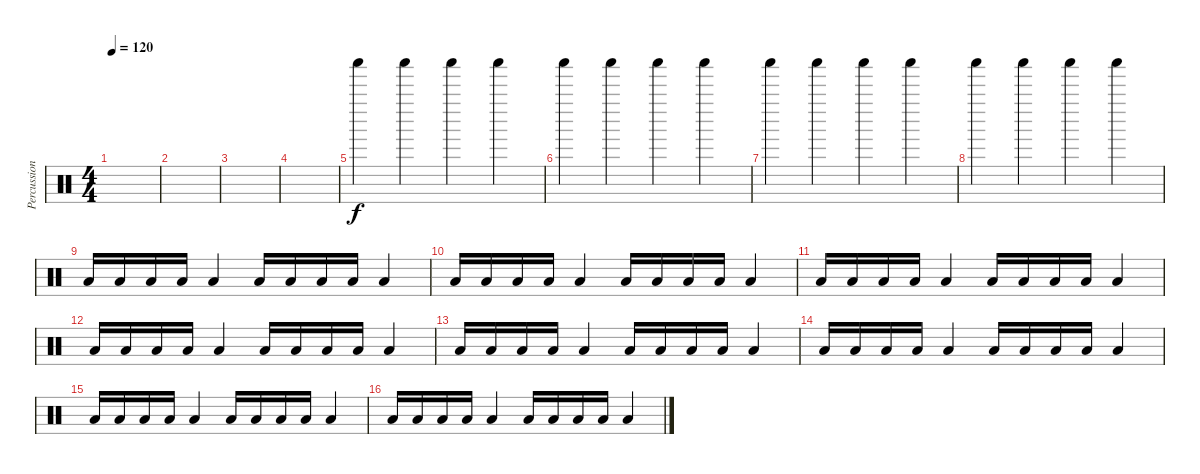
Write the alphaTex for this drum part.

\track ("Percussion" "Percussion") {instrument percussion}
\staff {score}
\articulation defaults
\ts (4 4)
\tempo 120
\clef neutral
\ks c
|
|
|
|
"Shaker (hit)".4 "Shaker (hit)".4 "Shaker (hit)".4 "Shaker (hit)".4 |
"Shaker (hit)".4 "Shaker (hit)".4 "Shaker (hit)".4 "Shaker (hit)".4 |
"Shaker (hit)".4 "Shaker (hit)".4 "Shaker (hit)".4 "Shaker (hit)".4 |
"Shaker (hit)".4 "Shaker (hit)".4 "Shaker (hit)".4 "Shaker (hit)".4 |
"Low Tom (hit)".16 "Low Tom (hit)".16 "Low Tom (hit)".16 "Low Tom (hit)".16 "Low Tom (hit)".4 "Low Tom (hit)".16 "Low Tom (hit)".16 "Low Tom (hit)".16 "Low Tom (hit)".16 "Low Tom (hit)".4 |
"Low Tom (hit)".16 "Low Tom (hit)".16 "Low Tom (hit)".16 "Low Tom (hit)".16 "Low Tom (hit)".4 "Low Tom (hit)".16 "Low Tom (hit)".16 "Low Tom (hit)".16 "Low Tom (hit)".16 "Low Tom (hit)".4 |
"Low Tom (hit)".16 "Low Tom (hit)".16 "Low Tom (hit)".16 "Low Tom (hit)".16 "Low Tom (hit)".4 "Low Tom (hit)".16 "Low Tom (hit)".16 "Low Tom (hit)".16 "Low Tom (hit)".16 "Low Tom (hit)".4 |
"Low Tom (hit)".16 "Low Tom (hit)".16 "Low Tom (hit)".16 "Low Tom (hit)".16 "Low Tom (hit)".4 "Low Tom (hit)".16 "Low Tom (hit)".16 "Low Tom (hit)".16 "Low Tom (hit)".16 "Low Tom (hit)".4 |
"Low Tom (hit)".16 "Low Tom (hit)".16 "Low Tom (hit)".16 "Low Tom (hit)".16 "Low Tom (hit)".4 "Low Tom (hit)".16 "Low Tom (hit)".16 "Low Tom (hit)".16 "Low Tom (hit)".16 "Low Tom (hit)".4 |
"Low Tom (hit)".16 "Low Tom (hit)".16 "Low Tom (hit)".16 "Low Tom (hit)".16 "Low Tom (hit)".4 "Low Tom (hit)".16 "Low Tom (hit)".16 "Low Tom (hit)".16 "Low Tom (hit)".16 "Low Tom (hit)".4 |
"Low Tom (hit)".16 "Low Tom (hit)".16 "Low Tom (hit)".16 "Low Tom (hit)".16 "Low Tom (hit)".4 "Low Tom (hit)".16 "Low Tom (hit)".16 "Low Tom (hit)".16 "Low Tom (hit)".16 "Low Tom (hit)".4 |
"Low Tom (hit)".16 "Low Tom (hit)".16 "Low Tom (hit)".16 "Low Tom (hit)".16 "Low Tom (hit)".4 "Low Tom (hit)".16 "Low Tom (hit)".16 "Low Tom (hit)".16 "Low Tom (hit)".16 "Low Tom (hit)".4
